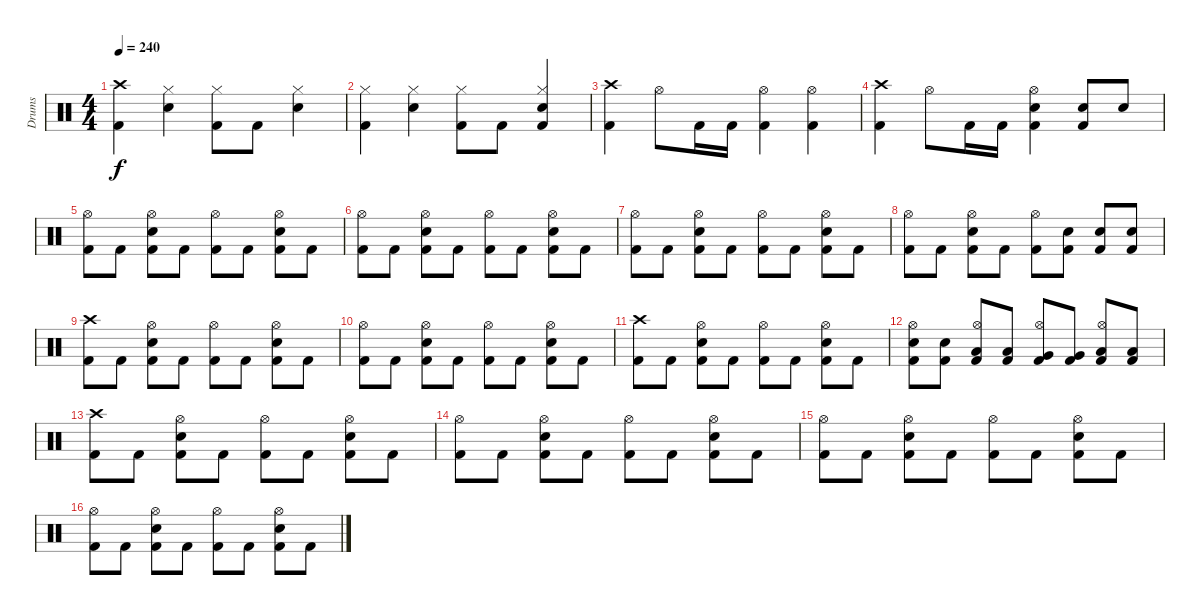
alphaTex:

\track ("Drums" "Drums") {instrument percussion}
\staff {score}
\articulation defaults
\ts (4 4)
\tempo 240
\clef neutral
\ks c
("Crash high (hit)" "Kick (hit) 2").4{dy f} ("Hi-Hat (closed)" "Snare (hit) 2").4 ("Hi-Hat (closed)" "Kick (hit) 2").8 "Kick (hit) 2".8 ("Hi-Hat (closed)" "Snare (hit) 2").4 |
("Hi-Hat (closed)" "Kick (hit) 2").4 ("Hi-Hat (closed)" "Snare (hit) 2").4 ("Hi-Hat (closed)" "Kick (hit) 2").8 "Kick (hit) 2".8 ("Hi-Hat (closed)" "Snare (hit) 2" "Kick (hit) 2").4 |
("Crash high (hit)" "Kick (hit) 2").4 "Hi-Hat (open)".8 "Kick (hit) 2".16 "Kick (hit) 2".16 ("Hi-Hat (open)" "Kick (hit) 2").4 ("Hi-Hat (open)" "Kick (hit) 2").4 |
("Crash high (hit)" "Kick (hit) 2").4 "Hi-Hat (open)".8 "Kick (hit) 2".16 "Kick (hit) 2".16 ("Hi-Hat (open)" "Snare (hit) 2" "Kick (hit) 2").4 ("Snare (hit) 2" "Kick (hit) 2").8 "Snare (hit) 2".8 |
("Hi-Hat (open)" "Kick (hit) 2").8 "Kick (hit) 2".8 ("Hi-Hat (open)" "Snare (hit) 2" "Kick (hit) 2").8 "Kick (hit) 2".8 ("Hi-Hat (open)" "Kick (hit) 2").8 "Kick (hit) 2".8 ("Hi-Hat (open)" "Snare (hit) 2" "Kick (hit) 2").8 "Kick (hit) 2".8 |
("Hi-Hat (open)" "Kick (hit) 2").8 "Kick (hit) 2".8 ("Hi-Hat (open)" "Snare (hit) 2" "Kick (hit) 2").8 "Kick (hit) 2".8 ("Hi-Hat (open)" "Kick (hit) 2").8 "Kick (hit) 2".8 ("Hi-Hat (open)" "Snare (hit) 2" "Kick (hit) 2").8 "Kick (hit) 2".8 |
("Hi-Hat (open)" "Kick (hit) 2").8 "Kick (hit) 2".8 ("Hi-Hat (open)" "Snare (hit) 2" "Kick (hit) 2").8 "Kick (hit) 2".8 ("Hi-Hat (open)" "Kick (hit) 2").8 "Kick (hit) 2".8 ("Hi-Hat (open)" "Snare (hit) 2" "Kick (hit) 2").8 "Kick (hit) 2".8 |
("Hi-Hat (open)" "Kick (hit) 2").8 "Kick (hit) 2".8 ("Hi-Hat (open)" "Snare (hit) 2" "Kick (hit) 2").8 "Kick (hit) 2".8 ("Hi-Hat (open)" "Kick (hit) 2").8 ("Snare (hit) 2" "Kick (hit) 2").8 ("Snare (hit) 2" "Kick (hit) 2").8 ("Snare (hit) 2" "Kick (hit) 2").8 |
("Crash high (hit)" "Kick (hit) 2").8 "Kick (hit) 2".8 ("Hi-Hat (open)" "Snare (hit) 2" "Kick (hit) 2").8 "Kick (hit) 2".8 ("Hi-Hat (open)" "Kick (hit) 2").8 "Kick (hit) 2".8 ("Hi-Hat (open)" "Snare (hit) 2" "Kick (hit) 2").8 "Kick (hit) 2".8 |
("Hi-Hat (open)" "Kick (hit) 2").8 "Kick (hit) 2".8 ("Hi-Hat (open)" "Snare (hit) 2" "Kick (hit) 2").8 "Kick (hit) 2".8 ("Hi-Hat (open)" "Kick (hit) 2").8 "Kick (hit) 2".8 ("Hi-Hat (open)" "Snare (hit) 2" "Kick (hit) 2").8 "Kick (hit) 2".8 |
("Crash high (hit)" "Kick (hit) 2").8 "Kick (hit) 2".8 ("Hi-Hat (open)" "Snare (hit) 2" "Kick (hit) 2").8 "Kick (hit) 2".8 ("Hi-Hat (open)" "Kick (hit) 2").8 "Kick (hit) 2".8 ("Hi-Hat (open)" "Snare (hit) 2" "Kick (hit) 2").8 "Kick (hit) 2".8 |
("Hi-Hat (open)" "Snare (hit) 2" "Kick (hit) 2").8 ("Snare (hit) 2" "Kick (hit) 2").8 ("Hi-Hat (open)" "Low Tom (hit)" "Kick (hit) 2").8 ("Low Tom (hit)" "Kick (hit) 2").8 ("Hi-Hat (open)" "Very Low Tom (hit)" "Kick (hit) 2").8 ("Very Low Tom (hit)" "Kick (hit) 2").8 ("Hi-Hat (open)" "Low Floor Tom (hit)" "Kick (hit) 2").8 ("Low Floor Tom (hit)" "Kick (hit) 2").8 |
("Crash high (hit)" "Kick (hit) 2").8 "Kick (hit) 2".8 ("Hi-Hat (open)" "Snare (hit) 2" "Kick (hit) 2").8 "Kick (hit) 2".8 ("Hi-Hat (open)" "Kick (hit) 2").8 "Kick (hit) 2".8 ("Hi-Hat (open)" "Snare (hit) 2" "Kick (hit) 2").8 "Kick (hit) 2".8 |
("Hi-Hat (open)" "Kick (hit) 2").8 "Kick (hit) 2".8 ("Hi-Hat (open)" "Snare (hit) 2" "Kick (hit) 2").8 "Kick (hit) 2".8 ("Hi-Hat (open)" "Kick (hit) 2").8 "Kick (hit) 2".8 ("Hi-Hat (open)" "Snare (hit) 2" "Kick (hit) 2").8 "Kick (hit) 2".8 |
("Hi-Hat (open)" "Kick (hit) 2").8 "Kick (hit) 2".8 ("Hi-Hat (open)" "Snare (hit) 2" "Kick (hit) 2").8 "Kick (hit) 2".8 ("Hi-Hat (open)" "Kick (hit) 2").8 "Kick (hit) 2".8 ("Hi-Hat (open)" "Snare (hit) 2" "Kick (hit) 2").8 "Kick (hit) 2".8 |
("Hi-Hat (open)" "Kick (hit) 2").8 "Kick (hit) 2".8 ("Hi-Hat (open)" "Snare (hit) 2" "Kick (hit) 2").8 "Kick (hit) 2".8 ("Hi-Hat (open)" "Kick (hit) 2").8 "Kick (hit) 2".8 ("Hi-Hat (open)" "Snare (hit) 2" "Kick (hit) 2").8 "Kick (hit) 2".8
